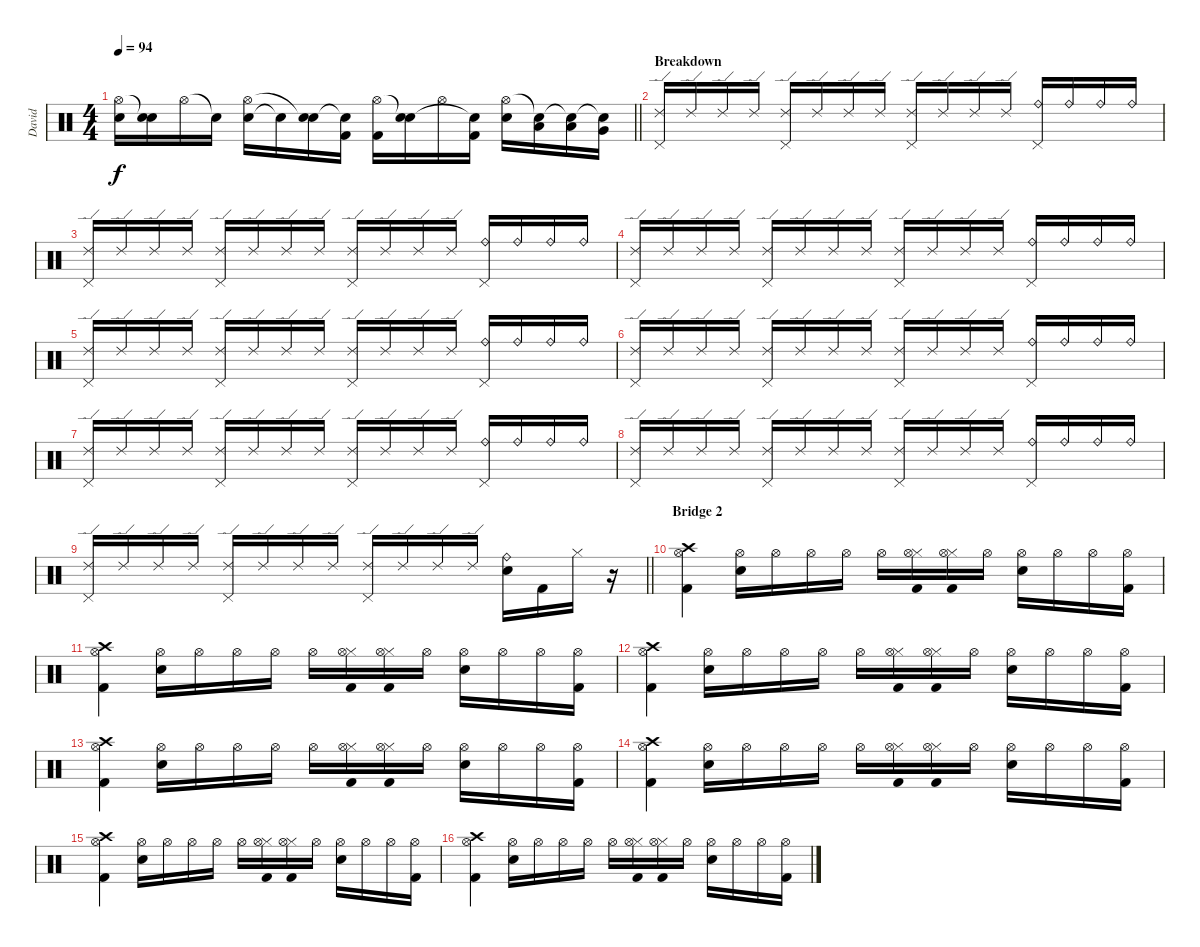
\track ("David" "David") {instrument percussion}
\staff {score}
\articulation defaults
\ts (4 4)
\tempo 94
\clef neutral
\barLineRight lightlight
\ks c
("Electric Snare (hit)" "Hi-Hat (open)").16{dy f} ("Electric Snare (hit)" "Snare (hit)"{t}).16 "Hi-Hat (open)".16 "Snare (hit)"{t}.16 ("Electric Snare (hit)" "Hi-Hat (open)").16 "Snare (hit)"{t}.16 ("Electric Snare (hit)" "Snare (hit)"{t}).16 ("Kick (hit) 2" "Snare (hit)"{t}).16 ("Kick (hit) 2" "Hi-Hat (open)").16 ("Electric Snare (hit)" "Snare (hit)"{t}).16 "Hi-Hat (open)".16 ("Kick (hit) 2" "Snare (hit)"{t}).16 ("Electric Snare (hit)" "Hi-Hat (open)").16 ("Low Tom (hit)" "Snare (hit)"{t}).16 ("Low Tom (hit)" "Snare (hit)"{t}).16 ("Very Low Tom (hit)" "Snare (hit)"{t}).16 |
\section ("" "Breakdown")
("Pedal Hi-Hat (hit)" "Ride (edge) 2").16 "Ride (edge) 2".16 "Ride (edge) 2".16 "Ride (edge) 2".16 ("Pedal Hi-Hat (hit)" "Ride (edge) 2").16 "Ride (edge) 2".16 "Ride (edge) 2".16 "Ride (edge) 2".16 ("Pedal Hi-Hat (hit)" "Ride (edge) 2").16 "Ride (edge) 2".16 "Ride (edge) 2".16 "Ride (edge) 2".16 ("Pedal Hi-Hat (hit)" "Ride (bell)").16 "Ride (bell)".16 "Ride (bell)".16 "Ride (bell)".16 |
("Pedal Hi-Hat (hit)" "Ride (edge) 2").16 "Ride (edge) 2".16 "Ride (edge) 2".16 "Ride (edge) 2".16 ("Pedal Hi-Hat (hit)" "Ride (edge) 2").16 "Ride (edge) 2".16 "Ride (edge) 2".16 "Ride (edge) 2".16 ("Pedal Hi-Hat (hit)" "Ride (edge) 2").16 "Ride (edge) 2".16 "Ride (edge) 2".16 "Ride (edge) 2".16 ("Pedal Hi-Hat (hit)" "Ride (bell)").16 "Ride (bell)".16 "Ride (bell)".16 "Ride (bell)".16 |
("Pedal Hi-Hat (hit)" "Ride (edge) 2").16 "Ride (edge) 2".16 "Ride (edge) 2".16 "Ride (edge) 2".16 ("Pedal Hi-Hat (hit)" "Ride (edge) 2").16 "Ride (edge) 2".16 "Ride (edge) 2".16 "Ride (edge) 2".16 ("Pedal Hi-Hat (hit)" "Ride (edge) 2").16 "Ride (edge) 2".16 "Ride (edge) 2".16 "Ride (edge) 2".16 ("Pedal Hi-Hat (hit)" "Ride (bell)").16 "Ride (bell)".16 "Ride (bell)".16 "Ride (bell)".16 |
("Pedal Hi-Hat (hit)" "Ride (edge) 2").16 "Ride (edge) 2".16 "Ride (edge) 2".16 "Ride (edge) 2".16 ("Pedal Hi-Hat (hit)" "Ride (edge) 2").16 "Ride (edge) 2".16 "Ride (edge) 2".16 "Ride (edge) 2".16 ("Pedal Hi-Hat (hit)" "Ride (edge) 2").16 "Ride (edge) 2".16 "Ride (edge) 2".16 "Ride (edge) 2".16 ("Pedal Hi-Hat (hit)" "Ride (bell)").16 "Ride (bell)".16 "Ride (bell)".16 "Ride (bell)".16 |
("Pedal Hi-Hat (hit)" "Ride (edge) 2").16 "Ride (edge) 2".16 "Ride (edge) 2".16 "Ride (edge) 2".16 ("Pedal Hi-Hat (hit)" "Ride (edge) 2").16 "Ride (edge) 2".16 "Ride (edge) 2".16 "Ride (edge) 2".16 ("Pedal Hi-Hat (hit)" "Ride (edge) 2").16 "Ride (edge) 2".16 "Ride (edge) 2".16 "Ride (edge) 2".16 ("Pedal Hi-Hat (hit)" "Ride (bell)").16 "Ride (bell)".16 "Ride (bell)".16 "Ride (bell)".16 |
("Pedal Hi-Hat (hit)" "Ride (edge) 2").16 "Ride (edge) 2".16 "Ride (edge) 2".16 "Ride (edge) 2".16 ("Pedal Hi-Hat (hit)" "Ride (edge) 2").16 "Ride (edge) 2".16 "Ride (edge) 2".16 "Ride (edge) 2".16 ("Pedal Hi-Hat (hit)" "Ride (edge) 2").16 "Ride (edge) 2".16 "Ride (edge) 2".16 "Ride (edge) 2".16 ("Pedal Hi-Hat (hit)" "Ride (bell)").16 "Ride (bell)".16 "Ride (bell)".16 "Ride (bell)".16 |
("Pedal Hi-Hat (hit)" "Ride (edge) 2").16 "Ride (edge) 2".16 "Ride (edge) 2".16 "Ride (edge) 2".16 ("Pedal Hi-Hat (hit)" "Ride (edge) 2").16 "Ride (edge) 2".16 "Ride (edge) 2".16 "Ride (edge) 2".16 ("Pedal Hi-Hat (hit)" "Ride (edge) 2").16 "Ride (edge) 2".16 "Ride (edge) 2".16 "Ride (edge) 2".16 ("Pedal Hi-Hat (hit)" "Ride (bell)").16 "Ride (bell)".16 "Ride (bell)".16 "Ride (bell)".16 |
\barLineRight lightlight
("Pedal Hi-Hat (hit)" "Ride (edge) 2").16 "Ride (edge) 2".16 "Ride (edge) 2".16 "Ride (edge) 2".16 ("Pedal Hi-Hat (hit)" "Ride (edge) 2").16 "Ride (edge) 2".16 "Ride (edge) 2".16 "Ride (edge) 2".16 ("Pedal Hi-Hat (hit)" "Ride (edge) 2").16 "Ride (edge) 2".16 "Ride (edge) 2".16 "Ride (edge) 2".16 ("Electric Snare (hit)" "Ride (bell)").16 "Kick (hit) 2".16 "Hi-Hat (closed)".16 r.16 |
\section ("" "Bridge 2")
("Kick (hit) 2" "Crash high (hit)" "Hi-Hat (open)").4 ("Electric Snare (hit)" "Hi-Hat (open)").16 "Hi-Hat (open)".16 "Hi-Hat (open)".16 "Hi-Hat (open)".16 "Hi-Hat (open)".16 ("Kick (hit) 2" "Hi-Hat (closed)" "Hi-Hat (open)").16 ("Kick (hit) 2" "Hi-Hat (closed)" "Hi-Hat (open)").16 "Hi-Hat (open)".16 ("Electric Snare (hit)" "Hi-Hat (open)").16 "Hi-Hat (open)".16 "Hi-Hat (open)".16 ("Kick (hit) 2" "Hi-Hat (open)").16 |
("Kick (hit) 2" "Crash high (hit)" "Hi-Hat (open)").4 ("Electric Snare (hit)" "Hi-Hat (open)").16 "Hi-Hat (open)".16 "Hi-Hat (open)".16 "Hi-Hat (open)".16 "Hi-Hat (open)".16 ("Kick (hit) 2" "Hi-Hat (closed)" "Hi-Hat (open)").16 ("Kick (hit) 2" "Hi-Hat (closed)" "Hi-Hat (open)").16 "Hi-Hat (open)".16 ("Electric Snare (hit)" "Hi-Hat (open)").16 "Hi-Hat (open)".16 "Hi-Hat (open)".16 ("Kick (hit) 2" "Hi-Hat (open)").16 |
("Kick (hit) 2" "Crash high (hit)" "Hi-Hat (open)").4 ("Electric Snare (hit)" "Hi-Hat (open)").16 "Hi-Hat (open)".16 "Hi-Hat (open)".16 "Hi-Hat (open)".16 "Hi-Hat (open)".16 ("Kick (hit) 2" "Hi-Hat (closed)" "Hi-Hat (open)").16 ("Kick (hit) 2" "Hi-Hat (closed)" "Hi-Hat (open)").16 "Hi-Hat (open)".16 ("Electric Snare (hit)" "Hi-Hat (open)").16 "Hi-Hat (open)".16 "Hi-Hat (open)".16 ("Kick (hit) 2" "Hi-Hat (open)").16 |
("Kick (hit) 2" "Crash high (hit)" "Hi-Hat (open)").4 ("Electric Snare (hit)" "Hi-Hat (open)").16 "Hi-Hat (open)".16 "Hi-Hat (open)".16 "Hi-Hat (open)".16 "Hi-Hat (open)".16 ("Kick (hit) 2" "Hi-Hat (closed)" "Hi-Hat (open)").16 ("Kick (hit) 2" "Hi-Hat (closed)" "Hi-Hat (open)").16 "Hi-Hat (open)".16 ("Electric Snare (hit)" "Hi-Hat (open)").16 "Hi-Hat (open)".16 "Hi-Hat (open)".16 ("Kick (hit) 2" "Hi-Hat (open)").16 |
("Kick (hit) 2" "Crash high (hit)" "Hi-Hat (open)").4 ("Electric Snare (hit)" "Hi-Hat (open)").16 "Hi-Hat (open)".16 "Hi-Hat (open)".16 "Hi-Hat (open)".16 "Hi-Hat (open)".16 ("Kick (hit) 2" "Hi-Hat (closed)" "Hi-Hat (open)").16 ("Kick (hit) 2" "Hi-Hat (closed)" "Hi-Hat (open)").16 "Hi-Hat (open)".16 ("Electric Snare (hit)" "Hi-Hat (open)").16 "Hi-Hat (open)".16 "Hi-Hat (open)".16 ("Kick (hit) 2" "Hi-Hat (open)").16 |
("Kick (hit) 2" "Crash high (hit)" "Hi-Hat (open)").4 ("Electric Snare (hit)" "Hi-Hat (open)").16 "Hi-Hat (open)".16 "Hi-Hat (open)".16 "Hi-Hat (open)".16 "Hi-Hat (open)".16 ("Kick (hit) 2" "Hi-Hat (closed)" "Hi-Hat (open)").16 ("Kick (hit) 2" "Hi-Hat (closed)" "Hi-Hat (open)").16 "Hi-Hat (open)".16 ("Electric Snare (hit)" "Hi-Hat (open)").16 "Hi-Hat (open)".16 "Hi-Hat (open)".16 ("Kick (hit) 2" "Hi-Hat (open)").16 |
("Kick (hit) 2" "Crash high (hit)" "Hi-Hat (open)").4 ("Electric Snare (hit)" "Hi-Hat (open)").16 "Hi-Hat (open)".16 "Hi-Hat (open)".16 "Hi-Hat (open)".16 "Hi-Hat (open)".16 ("Kick (hit) 2" "Hi-Hat (closed)" "Hi-Hat (open)").16 ("Kick (hit) 2" "Hi-Hat (closed)" "Hi-Hat (open)").16 "Hi-Hat (open)".16 ("Electric Snare (hit)" "Hi-Hat (open)").16 "Hi-Hat (open)".16 "Hi-Hat (open)".16 ("Kick (hit) 2" "Hi-Hat (open)").16
